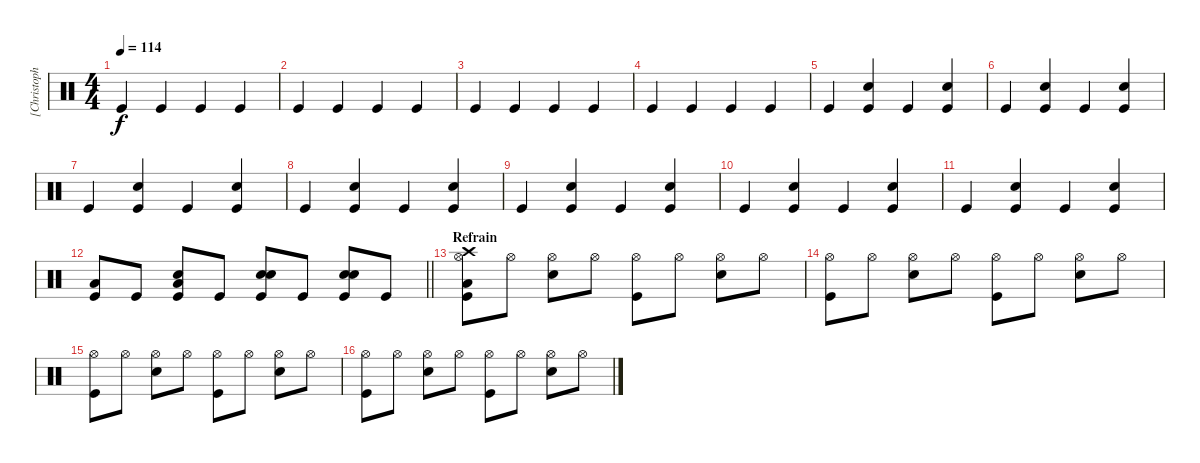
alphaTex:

\track ("[Christoph Schneider] ;Drums" "[Christoph") {solo instrument percussion}
\staff {score}
\articulation defaults
\ts (4 4)
\tempo 114
\clef neutral
\ks c "Kick (hit)".4{dy f} "Kick (hit)".4 "Kick (hit)".4 "Kick (hit)".4
|
"Kick (hit)".4 "Kick (hit)".4 "Kick (hit)".4 "Kick (hit)".4 |
"Kick (hit)".4 "Kick (hit)".4 "Kick (hit)".4 "Kick (hit)".4 |
"Kick (hit)".4 "Kick (hit)".4 "Kick (hit)".4 "Kick (hit)".4 |
"Kick (hit)".4 ("Kick (hit)" "Snare (hit) 2").4 "Kick (hit)".4 ("Kick (hit)" "Snare (hit) 2").4 |
"Kick (hit)".4 ("Kick (hit)" "Snare (hit) 2").4 "Kick (hit)".4 ("Kick (hit)" "Snare (hit) 2").4 |
"Kick (hit)".4 ("Kick (hit)" "Snare (hit) 2").4 "Kick (hit)".4 ("Kick (hit)" "Snare (hit) 2").4 |
"Kick (hit)".4 ("Kick (hit)" "Snare (hit) 2").4 "Kick (hit)".4 ("Kick (hit)" "Snare (hit) 2").4 |
"Kick (hit)".4 ("Kick (hit)" "Snare (hit) 2").4 "Kick (hit)".4 ("Kick (hit)" "Snare (hit) 2").4 |
"Kick (hit)".4 ("Kick (hit)" "Snare (hit) 2").4 "Kick (hit)".4 ("Kick (hit)" "Snare (hit) 2").4 |
"Kick (hit)".4 ("Kick (hit)" "Snare (hit) 2").4 "Kick (hit)".4 ("Kick (hit)" "Snare (hit) 2").4 |
\barLineRight lightlight
("Kick (hit)" "Low Floor Tom (hit)").8 "Kick (hit)".8 ("Kick (hit)" "Low Floor Tom (hit)" "Snare (hit) 2").8 "Kick (hit)".8 ("Kick (hit)" "Snare (hit) 2" "Snare (hit) 2").8 "Kick (hit)".8 ("Kick (hit)" "Snare (hit) 2" "Snare (hit) 2").8 "Kick (hit)".8 |
\section ("" "Refrain")
("Kick (hit)" "Crash high (hit)" "Hi-Hat (open)" "Low Floor Tom (hit)").8 "Hi-Hat (open)".8 ("Hi-Hat (open)" "Snare (hit) 2").8 "Hi-Hat (open)".8 ("Kick (hit)" "Hi-Hat (open)").8 "Hi-Hat (open)".8 ("Hi-Hat (open)" "Snare (hit) 2").8 "Hi-Hat (open)".8 |
("Kick (hit)" "Hi-Hat (open)").8 "Hi-Hat (open)".8 ("Hi-Hat (open)" "Snare (hit) 2").8 "Hi-Hat (open)".8 ("Kick (hit)" "Hi-Hat (open)").8 "Hi-Hat (open)".8 ("Hi-Hat (open)" "Snare (hit) 2").8 "Hi-Hat (open)".8 |
("Kick (hit)" "Hi-Hat (open)").8 "Hi-Hat (open)".8 ("Hi-Hat (open)" "Snare (hit) 2").8 "Hi-Hat (open)".8 ("Kick (hit)" "Hi-Hat (open)").8 "Hi-Hat (open)".8 ("Hi-Hat (open)" "Snare (hit) 2").8 "Hi-Hat (open)".8 |
("Kick (hit)" "Hi-Hat (open)").8 "Hi-Hat (open)".8 ("Hi-Hat (open)" "Snare (hit) 2").8 "Hi-Hat (open)".8 ("Kick (hit)" "Hi-Hat (open)").8 "Hi-Hat (open)".8 ("Hi-Hat (open)" "Snare (hit) 2").8 "Hi-Hat (open)".8
